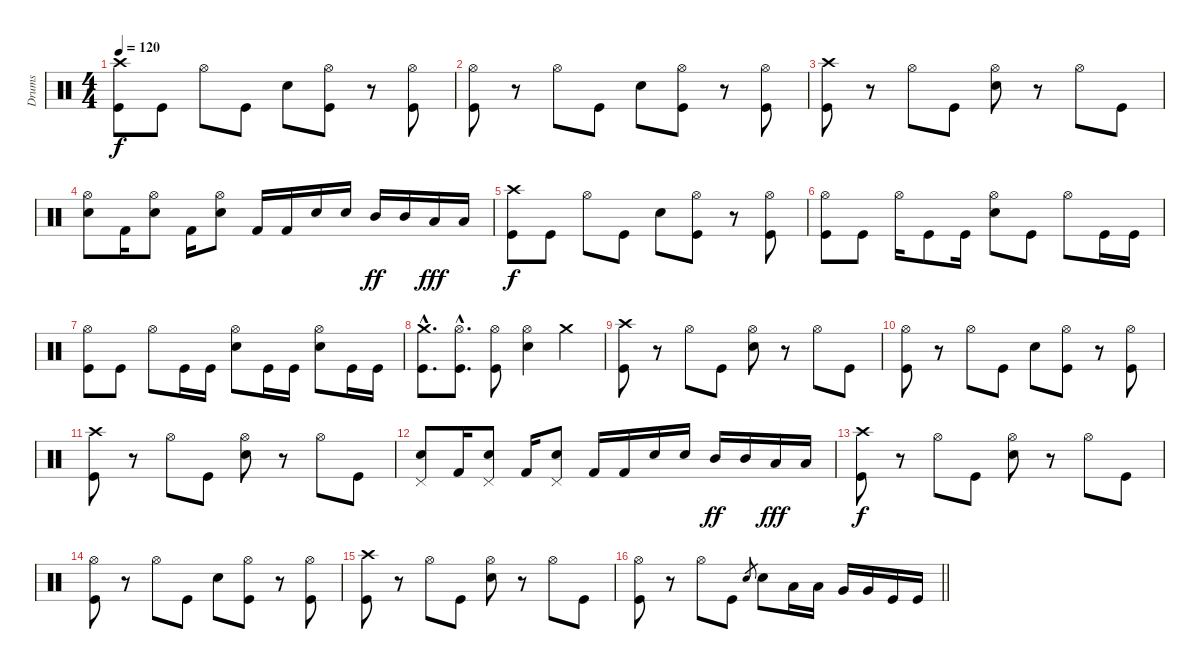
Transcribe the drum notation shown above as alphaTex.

\track ("Drums" "Drums") {instrument percussion}
\staff {score}
\articulation defaults
\ts (4 4)
\tempo 120
\clef neutral
\ks c
("Crash high (hit)" "Kick (hit)").8{dy f} "Kick (hit)".8 "Hi-Hat (open)".8 "Kick (hit)".8 "Electric Snare (hit)".8 ("Hi-Hat (open)" "Kick (hit)").8 r.8 ("Hi-Hat (open)" "Kick (hit)").8 |
("Hi-Hat (open)" "Kick (hit)").8 r.8 "Hi-Hat (open)".8 "Kick (hit)".8 "Electric Snare (hit)".8 ("Hi-Hat (open)" "Kick (hit)").8 r.8 ("Hi-Hat (open)" "Kick (hit)").8 |
("Crash high (hit)" "Kick (hit)").8 r.8 "Hi-Hat (open)".8 "Kick (hit)".8 ("Hi-Hat (open)" "Electric Snare (hit)").8 r.8 "Hi-Hat (open)".8 "Kick (hit)".8 |
("Hi-Hat (open)" "Electric Snare (hit)").8 "Kick (hit) 2".16 ("Hi-Hat (open)" "Electric Snare (hit)").8 "Kick (hit) 2".16 ("Hi-Hat (open)" "Electric Snare (hit)").8 "Kick (hit) 2".16 "Kick (hit) 2".16 "Electric Snare (hit)".16 "Electric Snare (hit)".16 "Mid Tom (hit)".16{dy ff} "Mid Tom (hit)".16 "Low Tom (hit)".16{dy fff} "Low Tom (hit)".16 |
("Crash high (hit)" "Kick (hit)").8{dy f} "Kick (hit)".8 "Hi-Hat (open)".8 "Kick (hit)".8 "Electric Snare (hit)".8 ("Hi-Hat (open)" "Kick (hit)").8 r.8 ("Hi-Hat (open)" "Kick (hit)").8 |
("Hi-Hat (open)" "Kick (hit)").8 "Kick (hit)".8 "Hi-Hat (open)".16 "Kick (hit)".8 "Kick (hit)".16 ("Hi-Hat (open)" "Electric Snare (hit)").8 "Kick (hit)".8 "Hi-Hat (open)".8 "Kick (hit)".16 "Kick (hit)".16 |
("Hi-Hat (open)" "Kick (hit)").8 "Kick (hit)".8 "Hi-Hat (open)".8 "Kick (hit)".16 "Kick (hit)".16 ("Hi-Hat (open)" "Electric Snare (hit)").8 "Kick (hit)".16 "Kick (hit)".16 ("Electric Snare (hit)" "Hi-Hat (open)").8 "Kick (hit)".16 "Kick (hit)".16 |
("Crash medium (hit)"{hac} "Kick (hit)"{hac}).8{d} ("Hi-Hat (open)"{hac} "Kick (hit)"{hac}).8{d} ("Hi-Hat (open)" "Kick (hit)").8 ("Hi-Hat (open)" "Electric Snare (hit)").4 "Crash medium (hit)".4 |
("Crash high (hit)" "Kick (hit)").8 r.8 "Hi-Hat (open)".8 "Kick (hit)".8 ("Hi-Hat (open)" "Electric Snare (hit)").8 r.8 "Hi-Hat (open)".8 "Kick (hit)".8 |
("Hi-Hat (open)" "Kick (hit)").8 r.8 "Hi-Hat (open)".8 "Kick (hit)".8 "Electric Snare (hit)".8 ("Hi-Hat (open)" "Kick (hit)").8 r.8 ("Hi-Hat (open)" "Kick (hit)").8 |
("Crash high (hit)" "Kick (hit)").8 r.8 "Hi-Hat (open)".8 "Kick (hit)".8 ("Hi-Hat (open)" "Electric Snare (hit)").8 r.8 "Hi-Hat (open)".8 "Kick (hit)".8 |
("Pedal Hi-Hat (hit)" "Electric Snare (hit)").8 "Kick (hit) 2".16 ("Pedal Hi-Hat (hit)" "Electric Snare (hit)").8 "Kick (hit) 2".16 ("Pedal Hi-Hat (hit)" "Electric Snare (hit)").8 "Kick (hit) 2".16 "Kick (hit) 2".16 "Electric Snare (hit)".16 "Electric Snare (hit)".16 "Mid Tom (hit)".16{dy ff} "Mid Tom (hit)".16 "Low Tom (hit)".16{dy fff} "Low Tom (hit)".16 |
("Crash high (hit)" "Kick (hit)").8{dy f} r.8 "Hi-Hat (open)".8 "Kick (hit)".8 ("Hi-Hat (open)" "Electric Snare (hit)").8 r.8 "Hi-Hat (open)".8 "Kick (hit)".8 |
("Hi-Hat (open)" "Kick (hit)").8 r.8 "Hi-Hat (open)".8 "Kick (hit)".8 "Electric Snare (hit)".8 ("Hi-Hat (open)" "Kick (hit)").8 r.8 ("Hi-Hat (open)" "Kick (hit)").8 |
("Crash high (hit)" "Kick (hit)").8 r.8 "Hi-Hat (open)".8 "Kick (hit)".8 ("Hi-Hat (open)" "Electric Snare (hit)").8 r.8 "Hi-Hat (open)".8 "Kick (hit)".8 |
\barLineRight lightlight
("Hi-Hat (open)" "Kick (hit)").8 r.8 "Hi-Hat (open)".8 "Kick (hit)".8 "Electric Snare (hit)".8{gr} "Electric Snare (hit)".8 "Low Tom (hit)".16 "Low Tom (hit)".16 "Very Low Tom (hit)".16 "Very Low Tom (hit)".16 "Kick (hit)".16 "Kick (hit)".16
